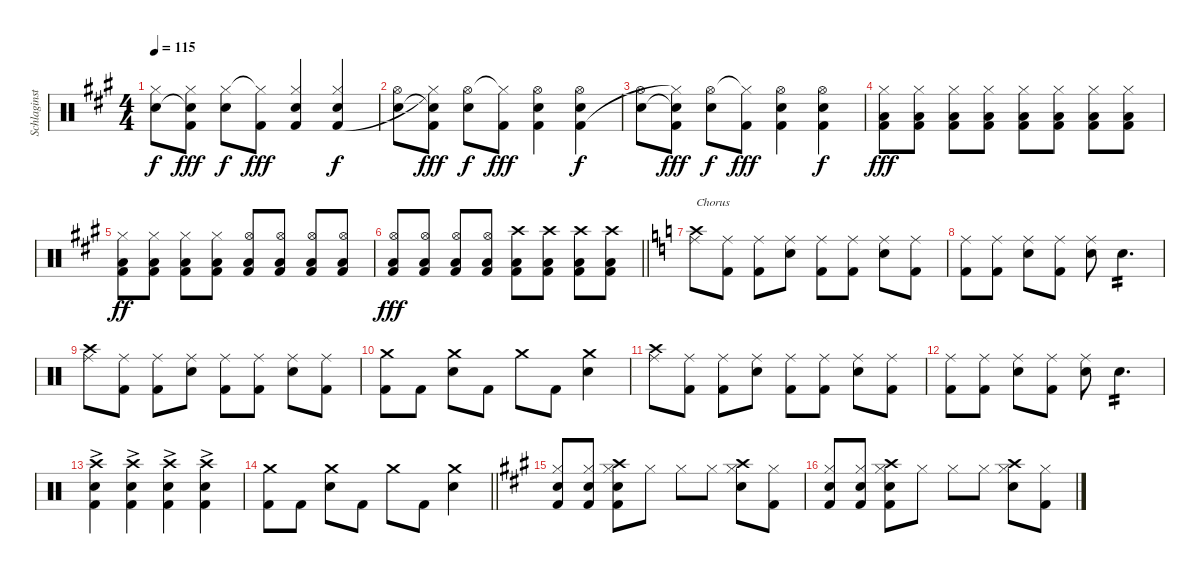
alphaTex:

\track ("Schlaginstrumente - Auswahl" "Schlaginst") {instrument percussion}
\staff {score}
\articulation defaults
\ts (4 4)
\tempo 115
\clef neutral
\ks a
("Snare (hit) 2" "Hi-Hat (closed)").8{dy f} ("Snare (hit) 2"{t} "Kick (hit) 2" "Hi-Hat (closed)"{t}).8{dy fff} ("Snare (hit) 2" "Hi-Hat (closed)").8{dy f} ("Kick (hit) 2" "Hi-Hat (closed)"{t}).8{dy fff} ("Hi-Hat (closed)" "Snare (hit) 2" "Kick (hit) 2").4 ("Hi-Hat (closed)" "Snare (hit) 2" "Kick (hit) 2").4{dy f} |
("Snare (hit) 2" "Hi-Hat (open)").8 ("Snare (hit) 2"{t} "Kick (hit) 2" "Hi-Hat (closed)"{t}).8{dy fff} ("Snare (hit) 2" "Hi-Hat (open)").8{dy f} ("Kick (hit) 2" "Hi-Hat (closed)"{t}).8{dy fff} ("Hi-Hat (open)" "Snare (hit) 2" "Kick (hit) 2").4 ("Hi-Hat (open)" "Snare (hit) 2" "Kick (hit) 2").4{dy f} |
("Snare (hit) 2" "Hi-Hat (open)").8 ("Snare (hit) 2"{t} "Kick (hit) 2" "Hi-Hat (closed)"{t}).8{dy fff} ("Snare (hit) 2" "Hi-Hat (open)").8{dy f} ("Kick (hit) 2" "Hi-Hat (closed)"{t}).8{dy fff} ("Hi-Hat (open)" "Snare (hit) 2" "Kick (hit) 2").4 ("Hi-Hat (open)" "Snare (hit) 2" "Kick (hit) 2").4{dy f} |
("Low Floor Tom (hit)" "Kick (hit) 2" "Hi-Hat (closed)").8{dy fff} ("Low Floor Tom (hit)" "Kick (hit) 2" "Hi-Hat (closed)").8 ("Low Floor Tom (hit)" "Kick (hit) 2" "Hi-Hat (closed)").8 ("Low Floor Tom (hit)" "Kick (hit) 2" "Hi-Hat (closed)").8 ("Low Floor Tom (hit)" "Kick (hit) 2" "Hi-Hat (closed)").8 ("Low Floor Tom (hit)" "Kick (hit) 2" "Hi-Hat (closed)").8 ("Low Floor Tom (hit)" "Kick (hit) 2" "Hi-Hat (closed)").8 ("Low Floor Tom (hit)" "Kick (hit) 2" "Hi-Hat (closed)").8 |
("Low Floor Tom (hit)" "Kick (hit) 2" "Hi-Hat (closed)").8{dy ff} ("Low Floor Tom (hit)" "Kick (hit) 2" "Hi-Hat (closed)").8 ("Low Floor Tom (hit)" "Kick (hit) 2" "Hi-Hat (closed)").8 ("Low Floor Tom (hit)" "Kick (hit) 2" "Hi-Hat (closed)").8 ("Low Floor Tom (hit)" "Kick (hit) 2" "Hi-Hat (open)").8 ("Low Floor Tom (hit)" "Kick (hit) 2" "Hi-Hat (open)").8 ("Low Floor Tom (hit)" "Kick (hit) 2" "Hi-Hat (open)").8 ("Low Floor Tom (hit)" "Kick (hit) 2" "Hi-Hat (open)").8 |
\barLineRight lightlight
("Low Floor Tom (hit)" "Kick (hit) 2" "Hi-Hat (open)").8{dy fff} ("Low Floor Tom (hit)" "Kick (hit) 2" "Hi-Hat (open)").8 ("Low Floor Tom (hit)" "Kick (hit) 2" "Hi-Hat (open)").8 ("Low Floor Tom (hit)" "Kick (hit) 2" "Hi-Hat (open)").8 ("Low Floor Tom (hit)" "Kick (hit) 2" "Crash high (hit)").8 ("Low Floor Tom (hit)" "Kick (hit) 2" "Crash high (hit)").8 ("Low Floor Tom (hit)" "Kick (hit) 2" "Crash high (hit)").8 ("Low Floor Tom (hit)" "Kick (hit) 2" "Crash high (hit)").8 |
\ks c
("Ride (middle)" "Crash high (hit)").8{txt "Chorus"} ("Ride (middle)" "Kick (hit) 2").8 ("Ride (middle)" "Kick (hit) 2").8 ("Ride (middle)" "Snare (hit) 2").8 ("Ride (middle)" "Kick (hit) 2").8 ("Ride (middle)" "Kick (hit) 2").8 ("Ride (middle)" "Snare (hit) 2").8 ("Ride (middle)" "Kick (hit) 2").8 |
("Ride (middle)" "Kick (hit) 2").8 ("Ride (middle)" "Kick (hit) 2").8 ("Ride (middle)" "Snare (hit) 2").8 ("Ride (middle)" "Kick (hit) 2").8 ("Ride (middle)" "Snare (hit) 2").8 "Snare (hit) 2".4{d tp 2} |
("Ride (middle)" "Crash high (hit)").8 ("Ride (middle)" "Kick (hit) 2").8 ("Ride (middle)" "Kick (hit) 2").8 ("Ride (middle)" "Snare (hit) 2").8 ("Ride (middle)" "Kick (hit) 2").8 ("Ride (middle)" "Kick (hit) 2").8 ("Ride (middle)" "Snare (hit) 2").8 ("Ride (middle)" "Kick (hit) 2").8 |
("Crash medium (hit)" "Kick (hit) 2").8 "Kick (hit) 2".8 ("Crash medium (hit)" "Snare (hit) 2").8 "Kick (hit) 2".8 "Crash medium (hit)".8 "Kick (hit) 2".8 ("Crash medium (hit)" "Snare (hit) 2").4 |
("Ride (middle)" "Crash high (hit)").8 ("Ride (middle)" "Kick (hit) 2").8 ("Ride (middle)" "Kick (hit) 2").8 ("Ride (middle)" "Snare (hit) 2").8 ("Ride (middle)" "Kick (hit) 2").8 ("Ride (middle)" "Kick (hit) 2").8 ("Ride (middle)" "Snare (hit) 2").8 ("Ride (middle)" "Kick (hit) 2").8 |
("Ride (middle)" "Kick (hit) 2").8 ("Ride (middle)" "Kick (hit) 2").8 ("Ride (middle)" "Snare (hit) 2").8 ("Ride (middle)" "Kick (hit) 2").8 ("Ride (middle)" "Snare (hit) 2").8 "Snare (hit) 2".4{d tp 2} |
("Crash high (hit)"{ac} "Snare (hit) 2"{ac} "Kick (hit) 2"{ac}).4 ("Crash high (hit)"{ac} "Snare (hit) 2"{ac} "Kick (hit) 2"{ac}).4 ("Crash high (hit)"{ac} "Snare (hit) 2"{ac} "Kick (hit) 2"{ac}).4 ("Crash high (hit)"{ac} "Snare (hit) 2"{ac} "Kick (hit) 2"{ac}).4 |
\barLineRight lightlight
("Crash medium (hit)" "Kick (hit) 2").8 "Kick (hit) 2".8 ("Crash medium (hit)" "Snare (hit) 2").8 "Kick (hit) 2".8 "Crash medium (hit)".8 "Kick (hit) 2".8 ("Crash medium (hit)" "Snare (hit) 2").4 |
\ks a
("Snare (hit) 2" "Hi-Hat (closed)" "Kick (hit) 2").8 ("Kick (hit) 2" "Snare (hit) 2" "Hi-Hat (closed)").8 ("Kick (hit) 2" "Crash high (hit)" "Hi-Hat (closed)" "Electric Snare (hit)").8 "Hi-Hat (closed)".8 "Hi-Hat (closed)".8 "Hi-Hat (closed)".8 ("Crash high (hit)" "Hi-Hat (closed)" "Electric Snare (hit)").8 ("Kick (hit) 2" "Hi-Hat (closed)").8 |
("Snare (hit) 2" "Hi-Hat (closed)" "Kick (hit) 2").8 ("Kick (hit) 2" "Snare (hit) 2" "Hi-Hat (closed)").8 ("Kick (hit) 2" "Crash high (hit)" "Hi-Hat (closed)" "Electric Snare (hit)").8 "Hi-Hat (closed)".8 "Hi-Hat (closed)".8 "Hi-Hat (closed)".8 ("Crash high (hit)" "Hi-Hat (closed)" "Electric Snare (hit)").8 ("Kick (hit) 2" "Hi-Hat (closed)").8
